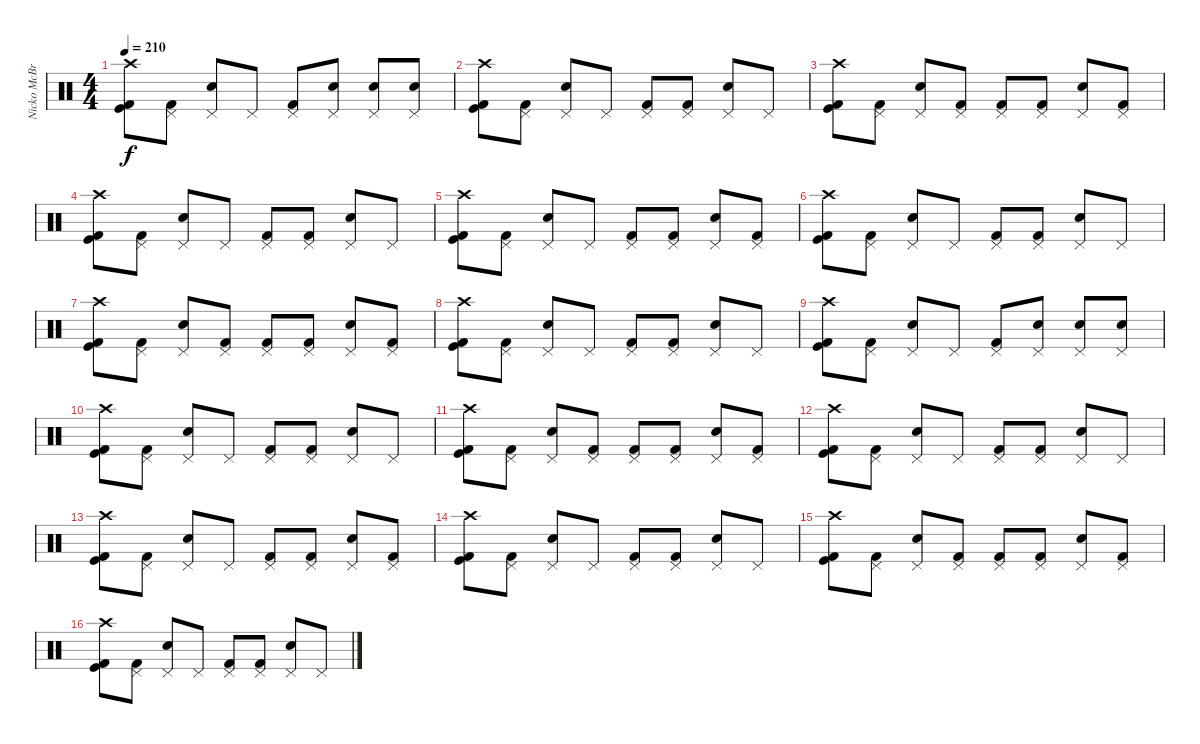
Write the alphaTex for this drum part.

\track ("Nicko McBrain" "Nicko McBr") {instrument percussion}
\staff {score}
\articulation defaults
\ts (4 4)
\tempo 210
\clef neutral
\ks c
("Crash high (hit)" "Kick (hit)" "Kick (hit) 2").8{dy f} ("Pedal Hi-Hat (hit)" "Kick (hit) 2").8 ("Pedal Hi-Hat (hit)" "Snare (hit) 2").8 "Pedal Hi-Hat (hit)".8 ("Pedal Hi-Hat (hit)" "Kick (hit) 2").8 ("Pedal Hi-Hat (hit)" "Snare (hit) 2").8 ("Pedal Hi-Hat (hit)" "Snare (hit) 2").8 ("Pedal Hi-Hat (hit)" "Snare (hit) 2").8 |
("Crash high (hit)" "Kick (hit)" "Kick (hit) 2").8 ("Pedal Hi-Hat (hit)" "Kick (hit) 2").8 ("Pedal Hi-Hat (hit)" "Snare (hit) 2").8 "Pedal Hi-Hat (hit)".8 ("Pedal Hi-Hat (hit)" "Kick (hit) 2").8 ("Pedal Hi-Hat (hit)" "Kick (hit) 2").8 ("Pedal Hi-Hat (hit)" "Snare (hit) 2").8 "Pedal Hi-Hat (hit)".8 |
("Crash high (hit)" "Kick (hit)" "Kick (hit) 2").8 ("Pedal Hi-Hat (hit)" "Kick (hit) 2").8 ("Pedal Hi-Hat (hit)" "Snare (hit) 2").8 ("Pedal Hi-Hat (hit)" "Kick (hit) 2").8 ("Pedal Hi-Hat (hit)" "Kick (hit) 2").8 ("Pedal Hi-Hat (hit)" "Kick (hit) 2").8 ("Pedal Hi-Hat (hit)" "Snare (hit) 2").8 ("Pedal Hi-Hat (hit)" "Kick (hit) 2").8 |
("Crash high (hit)" "Kick (hit)" "Kick (hit) 2").8 ("Pedal Hi-Hat (hit)" "Kick (hit) 2").8 ("Pedal Hi-Hat (hit)" "Snare (hit) 2").8 "Pedal Hi-Hat (hit)".8 ("Pedal Hi-Hat (hit)" "Kick (hit) 2").8 ("Pedal Hi-Hat (hit)" "Kick (hit) 2").8 ("Pedal Hi-Hat (hit)" "Snare (hit) 2").8 "Pedal Hi-Hat (hit)".8 |
("Crash high (hit)" "Kick (hit)" "Kick (hit) 2").8 ("Pedal Hi-Hat (hit)" "Kick (hit) 2").8 ("Pedal Hi-Hat (hit)" "Snare (hit) 2").8 "Pedal Hi-Hat (hit)".8 ("Pedal Hi-Hat (hit)" "Kick (hit) 2").8 ("Pedal Hi-Hat (hit)" "Kick (hit) 2").8 ("Pedal Hi-Hat (hit)" "Snare (hit) 2").8 ("Pedal Hi-Hat (hit)" "Kick (hit) 2").8 |
("Crash high (hit)" "Kick (hit)" "Kick (hit) 2").8 ("Pedal Hi-Hat (hit)" "Kick (hit) 2").8 ("Pedal Hi-Hat (hit)" "Snare (hit) 2").8 "Pedal Hi-Hat (hit)".8 ("Pedal Hi-Hat (hit)" "Kick (hit) 2").8 ("Pedal Hi-Hat (hit)" "Kick (hit) 2").8 ("Pedal Hi-Hat (hit)" "Snare (hit) 2").8 "Pedal Hi-Hat (hit)".8 |
("Crash high (hit)" "Kick (hit)" "Kick (hit) 2").8 ("Pedal Hi-Hat (hit)" "Kick (hit) 2").8 ("Pedal Hi-Hat (hit)" "Snare (hit) 2").8 ("Pedal Hi-Hat (hit)" "Kick (hit) 2").8 ("Pedal Hi-Hat (hit)" "Kick (hit) 2").8 ("Pedal Hi-Hat (hit)" "Kick (hit) 2").8 ("Pedal Hi-Hat (hit)" "Snare (hit) 2").8 ("Pedal Hi-Hat (hit)" "Kick (hit) 2").8 |
("Crash high (hit)" "Kick (hit)" "Kick (hit) 2").8 ("Pedal Hi-Hat (hit)" "Kick (hit) 2").8 ("Pedal Hi-Hat (hit)" "Snare (hit) 2").8 "Pedal Hi-Hat (hit)".8 ("Pedal Hi-Hat (hit)" "Kick (hit) 2").8 ("Pedal Hi-Hat (hit)" "Kick (hit) 2").8 ("Pedal Hi-Hat (hit)" "Snare (hit) 2").8 "Pedal Hi-Hat (hit)".8 |
("Crash high (hit)" "Kick (hit)" "Kick (hit) 2").8 ("Pedal Hi-Hat (hit)" "Kick (hit) 2").8 ("Pedal Hi-Hat (hit)" "Snare (hit) 2").8 "Pedal Hi-Hat (hit)".8 ("Pedal Hi-Hat (hit)" "Kick (hit) 2").8 ("Pedal Hi-Hat (hit)" "Snare (hit) 2").8 ("Pedal Hi-Hat (hit)" "Snare (hit) 2").8 ("Pedal Hi-Hat (hit)" "Snare (hit) 2").8 |
("Crash high (hit)" "Kick (hit)" "Kick (hit) 2").8 ("Pedal Hi-Hat (hit)" "Kick (hit) 2").8 ("Pedal Hi-Hat (hit)" "Snare (hit) 2").8 "Pedal Hi-Hat (hit)".8 ("Pedal Hi-Hat (hit)" "Kick (hit) 2").8 ("Pedal Hi-Hat (hit)" "Kick (hit) 2").8 ("Pedal Hi-Hat (hit)" "Snare (hit) 2").8 "Pedal Hi-Hat (hit)".8 |
("Crash high (hit)" "Kick (hit)" "Kick (hit) 2").8 ("Pedal Hi-Hat (hit)" "Kick (hit) 2").8 ("Pedal Hi-Hat (hit)" "Snare (hit) 2").8 ("Pedal Hi-Hat (hit)" "Kick (hit) 2").8 ("Pedal Hi-Hat (hit)" "Kick (hit) 2").8 ("Pedal Hi-Hat (hit)" "Kick (hit) 2").8 ("Pedal Hi-Hat (hit)" "Snare (hit) 2").8 ("Pedal Hi-Hat (hit)" "Kick (hit) 2").8 |
("Crash high (hit)" "Kick (hit)" "Kick (hit) 2").8 ("Pedal Hi-Hat (hit)" "Kick (hit) 2").8 ("Pedal Hi-Hat (hit)" "Snare (hit) 2").8 "Pedal Hi-Hat (hit)".8 ("Pedal Hi-Hat (hit)" "Kick (hit) 2").8 ("Pedal Hi-Hat (hit)" "Kick (hit) 2").8 ("Pedal Hi-Hat (hit)" "Snare (hit) 2").8 "Pedal Hi-Hat (hit)".8 |
("Crash high (hit)" "Kick (hit)" "Kick (hit) 2").8 ("Pedal Hi-Hat (hit)" "Kick (hit) 2").8 ("Pedal Hi-Hat (hit)" "Snare (hit) 2").8 "Pedal Hi-Hat (hit)".8 ("Pedal Hi-Hat (hit)" "Kick (hit) 2").8 ("Pedal Hi-Hat (hit)" "Kick (hit) 2").8 ("Pedal Hi-Hat (hit)" "Snare (hit) 2").8 ("Pedal Hi-Hat (hit)" "Kick (hit) 2").8 |
("Crash high (hit)" "Kick (hit)" "Kick (hit) 2").8 ("Pedal Hi-Hat (hit)" "Kick (hit) 2").8 ("Pedal Hi-Hat (hit)" "Snare (hit) 2").8 "Pedal Hi-Hat (hit)".8 ("Pedal Hi-Hat (hit)" "Kick (hit) 2").8 ("Pedal Hi-Hat (hit)" "Kick (hit) 2").8 ("Pedal Hi-Hat (hit)" "Snare (hit) 2").8 "Pedal Hi-Hat (hit)".8 |
("Crash high (hit)" "Kick (hit)" "Kick (hit) 2").8 ("Pedal Hi-Hat (hit)" "Kick (hit) 2").8 ("Pedal Hi-Hat (hit)" "Snare (hit) 2").8 ("Pedal Hi-Hat (hit)" "Kick (hit) 2").8 ("Pedal Hi-Hat (hit)" "Kick (hit) 2").8 ("Pedal Hi-Hat (hit)" "Kick (hit) 2").8 ("Pedal Hi-Hat (hit)" "Snare (hit) 2").8 ("Pedal Hi-Hat (hit)" "Kick (hit) 2").8 |
("Crash high (hit)" "Kick (hit)" "Kick (hit) 2").8 ("Pedal Hi-Hat (hit)" "Kick (hit) 2").8 ("Pedal Hi-Hat (hit)" "Snare (hit) 2").8 "Pedal Hi-Hat (hit)".8 ("Pedal Hi-Hat (hit)" "Kick (hit) 2").8 ("Pedal Hi-Hat (hit)" "Kick (hit) 2").8 ("Pedal Hi-Hat (hit)" "Snare (hit) 2").8 "Pedal Hi-Hat (hit)".8
